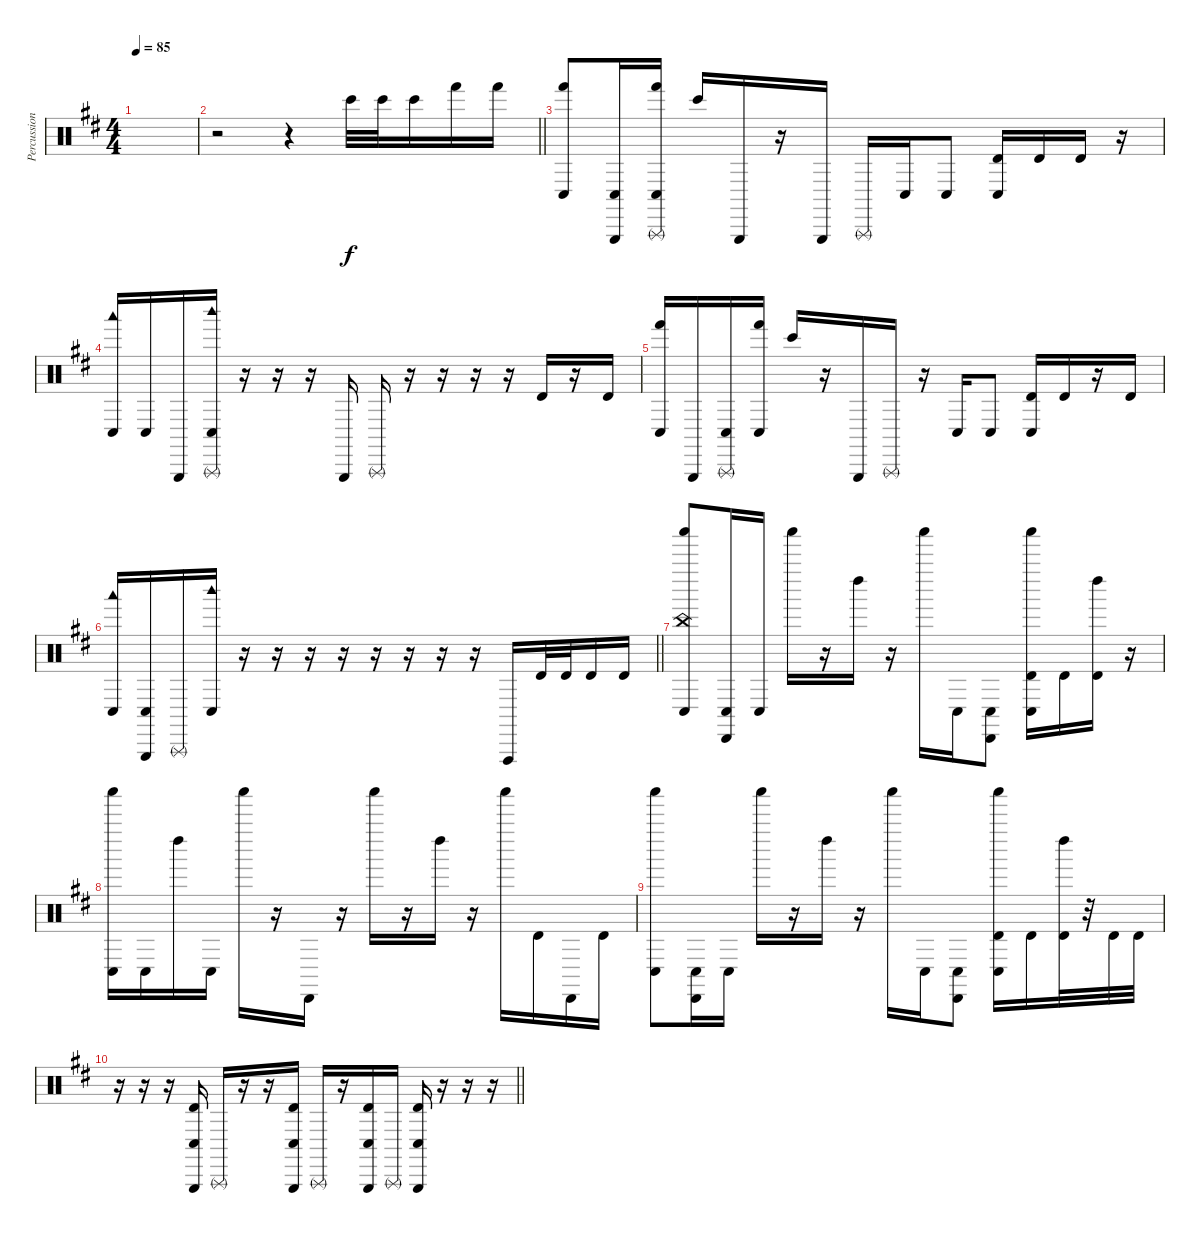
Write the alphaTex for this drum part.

\track ("Percussions" "Percussion") {instrument percussion}
\staff {score}
\articulation defaults
\ts (4 4)
\tempo 85
\clef neutral
\ks bminor
|
\barLineRight lightlight
r.2 r.4 "Bongo High (hit)".32 "Bongo High (hit)".32 "Bongo High (hit)".16 "Hand (hit)".16 "Hand (hit)".16 |
("Conga low (hit)" "Hand (hit)").8{volume 16} ("Conga low (hit)" "Triangle (hit)").16 ("Conga low (hit)" "Hand (hit)" "Triangle (rnute)").16 "Bongo High (hit)".16 "Triangle (hit)".16 r.16 "Triangle (hit)".16 "Triangle (rnute)".16 "Conga low (hit)".16 "Conga low (hit)".8 ("Timbale high (hit)" "Conga low (hit)").16 "Timbale high (hit)".16 "Timbale high (hit)".16 r.16 |
("Conga low (hit)" "Woodblock low (hit)").16 "Conga low (hit)".16 "Triangle (hit)".16 ("Conga low (hit)" "Woodblock high (hit)" "Triangle (rnute)").16 r.16 r.16 r.16 "Triangle (hit)".16 "Triangle (rnute)".16 r.16 r.16 r.16 r.16 "Timbale high (hit)".16 r.16 "Timbale high (hit)".16 |
("Conga low (hit)" "Hand (hit)").16 "Triangle (hit)".16 ("Conga low (hit)" "Triangle (rnute)").16 ("Conga low (hit)" "Hand (hit)").16 "Bongo High (hit)".16 r.16 "Triangle (hit)".16 "Triangle (rnute)".16 r.16 "Conga low (hit)".16 "Conga low (hit)".8 ("Timbale high (hit)" "Conga low (hit)").16 "Timbale high (hit)".16 r.16 "Timbale high (hit)".16 |
\barLineRight lightlight
("Conga low (hit)" "Woodblock low (hit)").16 ("Conga low (hit)" "Triangle (hit)").16 "Triangle (rnute)".16 ("Conga low (hit)" "Woodblock high (hit)").16 r.16 r.16 r.16 r.16 r.16 r.16 r.16 r.16 "Vibraslap (hit)".16 "Timbale high (hit)".32 "Timbale high (hit)".32 "Timbale high (hit)".16 "Timbale high (hit)".16 |
("Conga low (hit)" "Shaker (hit)" "China (hit)").8 ("Conga low (hit)" "Cabasa (hit)").16 "Conga low (hit)".16 "Shaker (hit)".16 r.16 "Left Maraca (hit)".16 r.16 "Shaker (hit)".16 "Conga low (hit)".16 ("Conga low (hit)" "Cabasa (hit)").8 ("Timbale high (hit)" "Conga low (hit)" "Shaker (hit)").16 "Timbale high (hit)".16 ("Timbale high (hit)" "Left Maraca (hit)").16 r.16 |
("Conga low (hit)" "Shaker (hit)").16 "Conga low (hit)".16 "Left Maraca (hit)".16 "Conga low (hit)".16 "Shaker (hit)".16 r.16 "Cabasa (hit)".16 r.16 "Shaker (hit)".16 r.16 "Left Maraca (hit)".16 r.16 "Shaker (hit)".16 "Timbale high (hit)".16 "Cabasa (hit)".16 "Timbale high (hit)".16 |
("Conga low (hit)" "Shaker (hit)").8 ("Conga low (hit)" "Cabasa (hit)").16 "Conga low (hit)".16 "Shaker (hit)".16 r.16 "Left Maraca (hit)".16 r.16 "Shaker (hit)".16 "Conga low (hit)".16 ("Conga low (hit)" "Cabasa (hit)").8 ("Timbale high (hit)" "Conga low (hit)" "Shaker (hit)").16 "Timbale high (hit)".16 ("Timbale high (hit)" "Left Maraca (hit)").32 r.32 "Timbale high (hit)".32 "Timbale high (hit)".32 |
\barLineRight lightlight
r.16 r.16 r.16 ("Timbale high (hit)" "Conga low (hit)" "Triangle (hit)").16 "Triangle (rnute)".16 r.16 r.16 ("Timbale high (hit)" "Conga low (hit)" "Triangle (hit)").16 "Triangle (rnute)".16 r.16 ("Timbale high (hit)" "Conga low (hit)" "Triangle (hit)").16 "Triangle (rnute)".16 ("Timbale high (hit)" "Conga low (hit)" "Triangle (hit)").16 r.16 r.16 r.16
